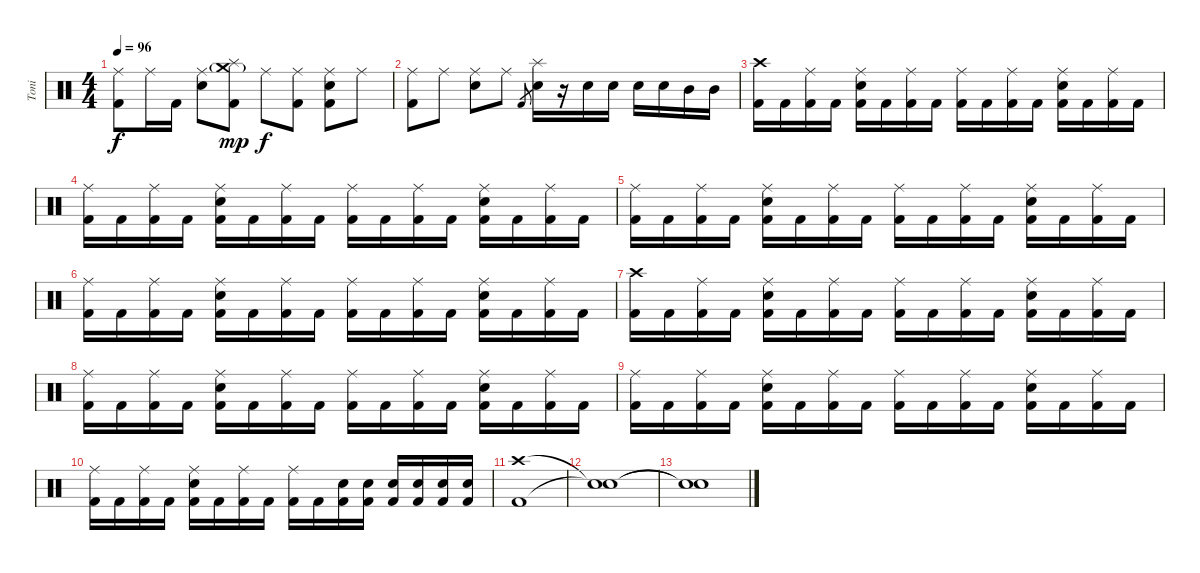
\track ("Toni" "Toni") {instrument percussion}
\staff {score}
\articulation defaults
\ts (4 4)
\tempo 96
\clef neutral
\ks c
("Ride (middle)" "Kick (hit) 2").8{dy f} "Ride (middle)".16 "Kick (hit) 2".16 ("Ride (middle)" "Electric Snare (hit)").8 ("Crash medium (hit)"{g} "Splash (hit)" "Kick (hit) 2").8{dy mp} "Ride (middle)".8{dy f} ("Ride (middle)" "Kick (hit) 2").8 ("Ride (middle)" "Electric Snare (hit)" "Kick (hit) 2").8 "Ride (middle)".8 |
("Ride (middle)" "Kick (hit) 2").8 "Ride (middle)".8 ("Ride (middle)" "Electric Snare (hit)").8 "Ride (middle)".8 "Kick (hit) 2".8{gr} ("Splash (hit)" "Electric Snare (hit)").16 r.16 "Electric Snare (hit)".16 "Electric Snare (hit)".16 "Electric Snare (hit)".16 "Electric Snare (hit)".16 "Mid Tom (hit)".16 "Mid Tom (hit)".16 |
("Crash high (hit)" "Kick (hit) 2").16 "Kick (hit) 2".16 ("Ride (middle)" "Kick (hit) 2").16 "Kick (hit) 2".16 ("Ride (middle)" "Electric Snare (hit)" "Kick (hit) 2").16 "Kick (hit) 2".16 ("Ride (middle)" "Kick (hit) 2").16 "Kick (hit) 2".16 ("Ride (middle)" "Kick (hit) 2").16 "Kick (hit) 2".16 ("Ride (middle)" "Kick (hit) 2").16 "Kick (hit) 2".16 ("Ride (middle)" "Electric Snare (hit)" "Kick (hit) 2").16 "Kick (hit) 2".16 ("Ride (middle)" "Kick (hit) 2").16 "Kick (hit) 2".16 |
("Ride (middle)" "Kick (hit) 2").16 "Kick (hit) 2".16 ("Ride (middle)" "Kick (hit) 2").16 "Kick (hit) 2".16 ("Ride (middle)" "Electric Snare (hit)" "Kick (hit) 2").16 "Kick (hit) 2".16 ("Ride (middle)" "Kick (hit) 2").16 "Kick (hit) 2".16 ("Ride (middle)" "Kick (hit) 2").16 "Kick (hit) 2".16 ("Ride (middle)" "Kick (hit) 2").16 "Kick (hit) 2".16 ("Ride (middle)" "Electric Snare (hit)" "Kick (hit) 2").16 "Kick (hit) 2".16 ("Ride (middle)" "Kick (hit) 2").16 "Kick (hit) 2".16 |
("Ride (middle)" "Kick (hit) 2").16 "Kick (hit) 2".16 ("Ride (middle)" "Kick (hit) 2").16 "Kick (hit) 2".16 ("Ride (middle)" "Electric Snare (hit)" "Kick (hit) 2").16 "Kick (hit) 2".16 ("Ride (middle)" "Kick (hit) 2").16 "Kick (hit) 2".16 ("Ride (middle)" "Kick (hit) 2").16 "Kick (hit) 2".16 ("Ride (middle)" "Kick (hit) 2").16 "Kick (hit) 2".16 ("Ride (middle)" "Electric Snare (hit)" "Kick (hit) 2").16 "Kick (hit) 2".16 ("Ride (middle)" "Kick (hit) 2").16 "Kick (hit) 2".16 |
("Ride (middle)" "Kick (hit) 2").16 "Kick (hit) 2".16 ("Ride (middle)" "Kick (hit) 2").16 "Kick (hit) 2".16 ("Ride (middle)" "Electric Snare (hit)" "Kick (hit) 2").16 "Kick (hit) 2".16 ("Ride (middle)" "Kick (hit) 2").16 "Kick (hit) 2".16 ("Ride (middle)" "Kick (hit) 2").16 "Kick (hit) 2".16 ("Ride (middle)" "Kick (hit) 2").16 "Kick (hit) 2".16 ("Ride (middle)" "Electric Snare (hit)" "Kick (hit) 2").16 "Kick (hit) 2".16 ("Ride (middle)" "Kick (hit) 2").16 "Kick (hit) 2".16 |
("Crash high (hit)" "Kick (hit) 2").16 "Kick (hit) 2".16 ("Ride (middle)" "Kick (hit) 2").16 "Kick (hit) 2".16 ("Ride (middle)" "Electric Snare (hit)" "Kick (hit) 2").16 "Kick (hit) 2".16 ("Ride (middle)" "Kick (hit) 2").16 "Kick (hit) 2".16 ("Ride (middle)" "Kick (hit) 2").16 "Kick (hit) 2".16 ("Ride (middle)" "Kick (hit) 2").16 "Kick (hit) 2".16 ("Ride (middle)" "Electric Snare (hit)" "Kick (hit) 2").16 "Kick (hit) 2".16 ("Ride (middle)" "Kick (hit) 2").16 "Kick (hit) 2".16 |
("Ride (middle)" "Kick (hit) 2").16 "Kick (hit) 2".16 ("Ride (middle)" "Kick (hit) 2").16 "Kick (hit) 2".16 ("Ride (middle)" "Electric Snare (hit)" "Kick (hit) 2").16 "Kick (hit) 2".16 ("Ride (middle)" "Kick (hit) 2").16 "Kick (hit) 2".16 ("Ride (middle)" "Kick (hit) 2").16 "Kick (hit) 2".16 ("Ride (middle)" "Kick (hit) 2").16 "Kick (hit) 2".16 ("Ride (middle)" "Electric Snare (hit)" "Kick (hit) 2").16 "Kick (hit) 2".16 ("Ride (middle)" "Kick (hit) 2").16 "Kick (hit) 2".16 |
("Ride (middle)" "Kick (hit) 2").16 "Kick (hit) 2".16 ("Ride (middle)" "Kick (hit) 2").16 "Kick (hit) 2".16 ("Ride (middle)" "Electric Snare (hit)" "Kick (hit) 2").16 "Kick (hit) 2".16 ("Ride (middle)" "Kick (hit) 2").16 "Kick (hit) 2".16 ("Ride (middle)" "Kick (hit) 2").16 "Kick (hit) 2".16 ("Ride (middle)" "Kick (hit) 2").16 "Kick (hit) 2".16 ("Ride (middle)" "Electric Snare (hit)" "Kick (hit) 2").16 "Kick (hit) 2".16 ("Ride (middle)" "Kick (hit) 2").16 "Kick (hit) 2".16 |
("Ride (middle)" "Kick (hit) 2").16 "Kick (hit) 2".16 ("Ride (middle)" "Kick (hit) 2").16 "Kick (hit) 2".16 ("Ride (middle)" "Electric Snare (hit)" "Kick (hit) 2").16 "Kick (hit) 2".16 ("Ride (middle)" "Kick (hit) 2").16 "Kick (hit) 2".16 ("Ride (middle)" "Kick (hit) 2").16 "Kick (hit) 2".16 ("Electric Snare (hit)" "Kick (hit) 2").16 ("Electric Snare (hit)" "Kick (hit) 2").16 ("Electric Snare (hit)" "Kick (hit) 2").16 ("Electric Snare (hit)" "Kick (hit) 2").16 ("Electric Snare (hit)" "Kick (hit) 2").16 ("Electric Snare (hit)" "Kick (hit) 2").16 |
("Crash high (hit)" "Kick (hit) 2").1{volume 0} |
("Snare (hit)"{t} "Snare (hit)"{t}).1 |
("Snare (hit)"{t} "Snare (hit)"{t}).1
